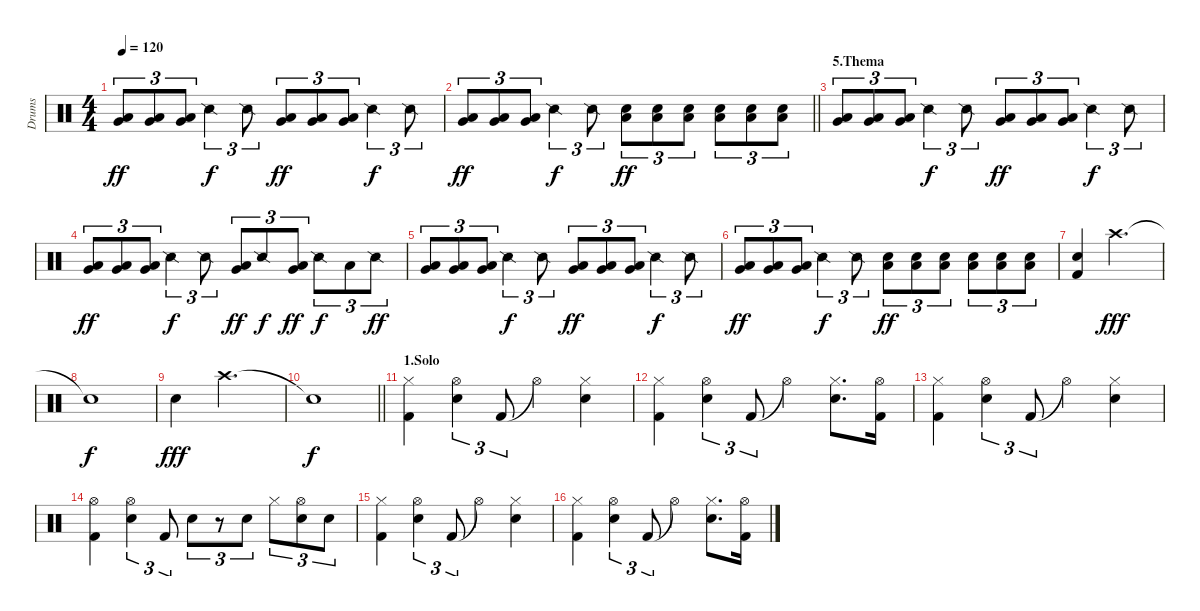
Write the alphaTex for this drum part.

\track ("Drums" "Drums") {instrument percussion}
\staff {score}
\articulation defaults
\ts (4 4)
\tempo 120
\clef neutral
\ks c
("Very Low Tom (hit)" "Low Floor Tom (hit)").8{tu (3 2) dy ff} ("Very Low Tom (hit)" "Low Floor Tom (hit)").8{tu (3 2)} ("Very Low Tom (hit)" "Low Floor Tom (hit)").8{tu (3 2)} "Snare (side stick) 2".4{tu (3 2) dy f} "Snare (side stick) 2".8{tu (3 2)} ("Very Low Tom (hit)" "Low Floor Tom (hit)").8{tu (3 2) dy ff} ("Very Low Tom (hit)" "Low Floor Tom (hit)").8{tu (3 2)} ("Very Low Tom (hit)" "Low Floor Tom (hit)").8{tu (3 2)} "Snare (side stick) 2".4{tu (3 2) dy f} "Snare (side stick) 2".8{tu (3 2)} |
\barLineRight lightlight
("Very Low Tom (hit)" "Low Floor Tom (hit)").8{tu (3 2) dy ff} ("Very Low Tom (hit)" "Low Floor Tom (hit)").8{tu (3 2)} ("Very Low Tom (hit)" "Low Floor Tom (hit)").8{tu (3 2)} "Snare (side stick) 2".4{tu (3 2) dy f} "Snare (side stick) 2".8{tu (3 2)} ("Electric Snare (hit)" "Low Floor Tom (hit)").8{tu (3 2) dy ff} ("Electric Snare (hit)" "Low Floor Tom (hit)").8{tu (3 2)} ("Electric Snare (hit)" "Low Floor Tom (hit)").8{tu (3 2)} ("Electric Snare (hit)" "Low Floor Tom (hit)").8{tu (3 2)} ("Electric Snare (hit)" "Low Floor Tom (hit)").8{tu (3 2)} ("Electric Snare (hit)" "Low Floor Tom (hit)").8{tu (3 2)} |
\section ("" "5.Thema")
("Very Low Tom (hit)" "Low Floor Tom (hit)").8{tu (3 2)} ("Very Low Tom (hit)" "Low Floor Tom (hit)").8{tu (3 2)} ("Very Low Tom (hit)" "Low Floor Tom (hit)").8{tu (3 2)} "Snare (side stick) 2".4{tu (3 2) dy f} "Snare (side stick) 2".8{tu (3 2)} ("Very Low Tom (hit)" "Low Floor Tom (hit)").8{tu (3 2) dy ff} ("Very Low Tom (hit)" "Low Floor Tom (hit)").8{tu (3 2)} ("Very Low Tom (hit)" "Low Floor Tom (hit)").8{tu (3 2)} "Snare (side stick) 2".4{tu (3 2) dy f} "Snare (side stick) 2".8{tu (3 2)} |
("Very Low Tom (hit)" "Low Floor Tom (hit)").8{tu (3 2) dy ff} ("Very Low Tom (hit)" "Low Floor Tom (hit)").8{tu (3 2)} ("Very Low Tom (hit)" "Low Floor Tom (hit)").8{tu (3 2)} "Snare (side stick) 2".4{tu (3 2) dy f} "Snare (side stick) 2".8{tu (3 2)} ("Very Low Tom (hit)" "Low Floor Tom (hit)").8{tu (3 2) dy ff} "Snare (side stick) 2".8{tu (3 2) dy f} ("Very Low Tom (hit)" "Low Floor Tom (hit)").8{tu (3 2) dy ff} "Snare (side stick) 2".8{tu (3 2) dy f} "Low Floor Tom (hit)".8{tu (3 2)} "Snare (side stick) 2".8{tu (3 2) dy ff} |
("Very Low Tom (hit)" "Low Floor Tom (hit)").8{tu (3 2)} ("Very Low Tom (hit)" "Low Floor Tom (hit)").8{tu (3 2)} ("Very Low Tom (hit)" "Low Floor Tom (hit)").8{tu (3 2)} "Snare (side stick) 2".4{tu (3 2) dy f} "Snare (side stick) 2".8{tu (3 2)} ("Very Low Tom (hit)" "Low Floor Tom (hit)").8{tu (3 2) dy ff} ("Very Low Tom (hit)" "Low Floor Tom (hit)").8{tu (3 2)} ("Very Low Tom (hit)" "Low Floor Tom (hit)").8{tu (3 2)} "Snare (side stick) 2".4{tu (3 2) dy f} "Snare (side stick) 2".8{tu (3 2)} |
("Very Low Tom (hit)" "Low Floor Tom (hit)").8{tu (3 2) dy ff} ("Very Low Tom (hit)" "Low Floor Tom (hit)").8{tu (3 2)} ("Very Low Tom (hit)" "Low Floor Tom (hit)").8{tu (3 2)} "Snare (side stick) 2".4{tu (3 2) dy f} "Snare (side stick) 2".8{tu (3 2)} ("Electric Snare (hit)" "Low Floor Tom (hit)").8{tu (3 2) dy ff} ("Electric Snare (hit)" "Low Floor Tom (hit)").8{tu (3 2)} ("Electric Snare (hit)" "Low Floor Tom (hit)").8{tu (3 2)} ("Electric Snare (hit)" "Low Floor Tom (hit)").8{tu (3 2)} ("Electric Snare (hit)" "Low Floor Tom (hit)").8{tu (3 2)} ("Electric Snare (hit)" "Low Floor Tom (hit)").8{tu (3 2)} |
("Electric Snare (hit)" "Kick (hit) 2").4 "Crash high (hit)".2{d dy fff} |
"Snare (hit)"{t}.1{dy f} |
"Electric Snare (hit)".4{dy fff} "Crash high (hit)".2{d} |
\barLineRight lightlight "Snare (hit)"{t}.1{dy f}
|
\section ("" "1.Solo")
("Hi-Hat (closed)" "Kick (hit) 2").4 ("Hi-Hat (open)" "Snare (hit) 2").4{tu (3 2)} "Kick (hit) 2".8{tu (3 2)} "Hi-Hat (open)"{t}.4 ("Hi-Hat (closed)" "Snare (hit) 2").4 |
("Hi-Hat (closed)" "Kick (hit) 2").4 ("Hi-Hat (open)" "Snare (hit) 2").4{tu (3 2)} "Kick (hit) 2".8{tu (3 2)} "Hi-Hat (open)"{t}.4 ("Hi-Hat (closed)" "Snare (hit) 2").8{d} ("Hi-Hat (open)" "Kick (hit) 2").16 |
("Hi-Hat (closed)" "Kick (hit) 2").4 ("Hi-Hat (open)" "Snare (hit) 2").4{tu (3 2)} "Kick (hit) 2".8{tu (3 2)} "Hi-Hat (open)"{t}.4 ("Hi-Hat (closed)" "Snare (hit) 2").4 |
("Hi-Hat (open)" "Kick (hit) 2").4 ("Hi-Hat (open)" "Snare (hit) 2").4{tu (3 2)} "Kick (hit) 2".8{tu (3 2)} "Snare (hit) 2".8{tu (3 2)} r.8{tu (3 2)} "Snare (hit) 2".8{tu (3 2)} "Hi-Hat (closed)".8{tu (3 2)} ("Hi-Hat (open)" "Snare (hit) 2").8{tu (3 2)} "Snare (hit) 2".8{tu (3 2)} |
("Hi-Hat (closed)" "Kick (hit) 2").4 ("Hi-Hat (open)" "Snare (hit) 2").4{tu (3 2)} "Kick (hit) 2".8{tu (3 2)} "Hi-Hat (open)"{t}.4 ("Hi-Hat (closed)" "Snare (hit) 2").4 |
("Hi-Hat (closed)" "Kick (hit) 2").4 ("Hi-Hat (open)" "Snare (hit) 2").4{tu (3 2)} "Kick (hit) 2".8{tu (3 2)} "Hi-Hat (open)"{t}.4 ("Hi-Hat (closed)" "Snare (hit) 2").8{d} ("Hi-Hat (open)" "Kick (hit) 2").16
